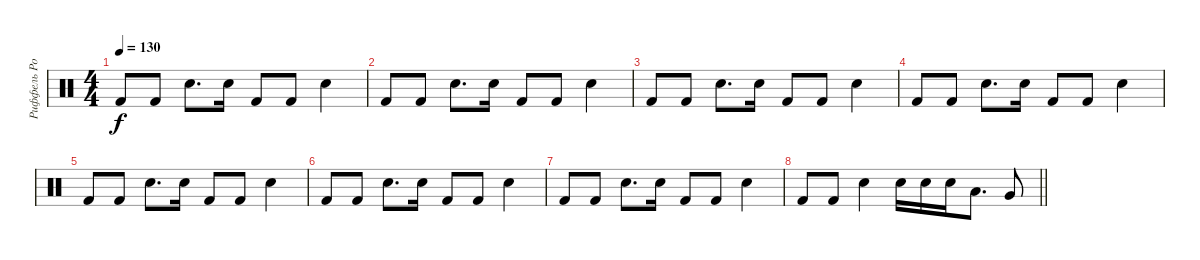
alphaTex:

\track ("Риффель Роман(Главные)" "Риффель Ро") {instrument percussion}
\staff {score}
\articulation defaults
\ts (4 4)
\tempo 130
\clef neutral
\ks c "Kick (hit) 2".8{dy f} "Kick (hit) 2".8 "Electric Snare (hit)".8{d} "Electric Snare (hit)".16 "Kick (hit) 2".8 "Kick (hit) 2".8 "Electric Snare (hit)".4
|
"Kick (hit) 2".8 "Kick (hit) 2".8 "Electric Snare (hit)".8{d} "Electric Snare (hit)".16 "Kick (hit) 2".8 "Kick (hit) 2".8 "Electric Snare (hit)".4 |
"Kick (hit) 2".8 "Kick (hit) 2".8 "Electric Snare (hit)".8{d} "Electric Snare (hit)".16 "Kick (hit) 2".8 "Kick (hit) 2".8 "Electric Snare (hit)".4 |
"Kick (hit) 2".8 "Kick (hit) 2".8 "Electric Snare (hit)".8{d} "Electric Snare (hit)".16 "Kick (hit) 2".8 "Kick (hit) 2".8 "Electric Snare (hit)".4 |
"Kick (hit) 2".8 "Kick (hit) 2".8 "Electric Snare (hit)".8{d} "Electric Snare (hit)".16 "Kick (hit) 2".8 "Kick (hit) 2".8 "Electric Snare (hit)".4 |
"Kick (hit) 2".8 "Kick (hit) 2".8 "Electric Snare (hit)".8{d} "Electric Snare (hit)".16 "Kick (hit) 2".8 "Kick (hit) 2".8 "Electric Snare (hit)".4 |
"Kick (hit) 2".8 "Kick (hit) 2".8 "Electric Snare (hit)".8{d} "Electric Snare (hit)".16 "Kick (hit) 2".8 "Kick (hit) 2".8 "Electric Snare (hit)".4 |
\barLineRight lightlight "Kick (hit) 2".8 "Kick (hit) 2".8 "Electric Snare (hit)".4 "Electric Snare (hit)".16 "Electric Snare (hit)".16 "Electric Snare (hit)".16 "Low Tom (hit)".8{d} "Very Low Tom (hit)".8
